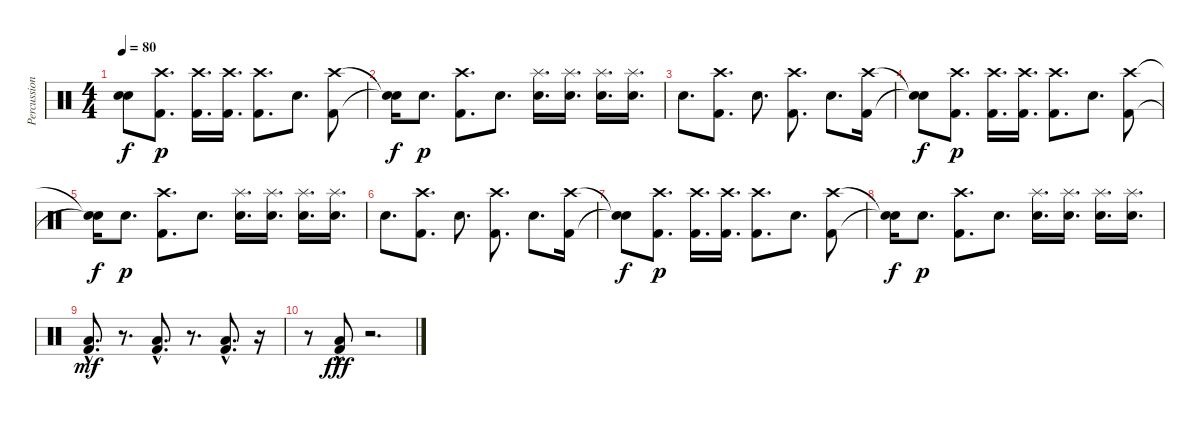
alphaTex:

\track ("Percussion" "Percussion") {instrument percussion}
\staff {score}
\articulation defaults
\ts (4 4)
\tempo 80
\clef neutral
\ks c
("Snare (hit)"{t} "Snare (hit)"{t}).8{dy f} ("Crash high (hit)" "Kick (hit) 2").8{d dy p} ("Crash high (hit)" "Kick (hit) 2").16{d} ("Crash high (hit)" "Kick (hit) 2").16{d} ("Crash high (hit)" "Kick (hit) 2").8{d} "Snare (hit) 2".8{d} ("Crash high (hit)" "Kick (hit) 2").8 |
("Snare (hit)"{t} "Snare (hit)"{t}).16{dy f} "Snare (hit) 2".8{d dy p} ("Crash high (hit)" "Kick (hit) 2").8{d} "Snare (hit) 2".8{d} ("Splash (hit)" "Snare (hit) 2").16{d} ("Splash (hit)" "Snare (hit) 2").16{d} ("Splash (hit)" "Snare (hit) 2").16{d} ("Splash (hit)" "Snare (hit) 2").16{d} |
"Snare (hit) 2".8{d} ("Kick (hit) 2" "Crash high (hit)").8{d} "Snare (hit) 2".8{d} ("Kick (hit) 2" "Crash high (hit)").8{d} "Snare (hit) 2".8{d} ("Kick (hit) 2" "Crash high (hit)").16 |
("Snare (hit)"{t} "Snare (hit)"{t}).8{dy f} ("Crash high (hit)" "Kick (hit) 2").8{d dy p} ("Crash high (hit)" "Kick (hit) 2").16{d} ("Crash high (hit)" "Kick (hit) 2").16{d} ("Crash high (hit)" "Kick (hit) 2").8{d} "Snare (hit) 2".8{d} ("Crash high (hit)" "Kick (hit) 2").8 |
("Snare (hit)"{t} "Snare (hit)"{t}).16{dy f} "Snare (hit) 2".8{d dy p} ("Crash high (hit)" "Kick (hit) 2").8{d} "Snare (hit) 2".8{d} ("Splash (hit)" "Snare (hit) 2").16{d} ("Splash (hit)" "Snare (hit) 2").16{d} ("Splash (hit)" "Snare (hit) 2").16{d} ("Splash (hit)" "Snare (hit) 2").16{d} |
"Snare (hit) 2".8{d} ("Kick (hit) 2" "Crash high (hit)").8{d} "Snare (hit) 2".8{d} ("Kick (hit) 2" "Crash high (hit)").8{d} "Snare (hit) 2".8{d} ("Kick (hit) 2" "Crash high (hit)").16 |
("Snare (hit)"{t} "Snare (hit)"{t}).8{dy f} ("Crash high (hit)" "Kick (hit) 2").8{d dy p} ("Crash high (hit)" "Kick (hit) 2").16{d} ("Crash high (hit)" "Kick (hit) 2").16{d} ("Crash high (hit)" "Kick (hit) 2").8{d} "Snare (hit) 2".8{d} ("Crash high (hit)" "Kick (hit) 2").8 |
("Snare (hit)"{t} "Snare (hit)"{t}).16{dy f} "Snare (hit) 2".8{d dy p} ("Crash high (hit)" "Kick (hit) 2").8{d} "Snare (hit) 2".8{d} ("Splash (hit)" "Snare (hit) 2").16{d} ("Splash (hit)" "Snare (hit) 2").16{d} ("Splash (hit)" "Snare (hit) 2").16{d} ("Splash (hit)" "Snare (hit) 2").16{d} |
("Low Floor Tom (hit)"{hac} "Kick (hit) 2"{hac}).8{d dy mf} r.8{d} ("Low Floor Tom (hit)"{hac} "Kick (hit) 2"{hac}).8{d} r.8{d} ("Low Floor Tom (hit)"{hac} "Kick (hit) 2"{hac}).8{d} r.16 |
r.8 ("Low Floor Tom (hit)"{hac} "Kick (hit) 2"{hac}).8{dy fff} r.2{d}
